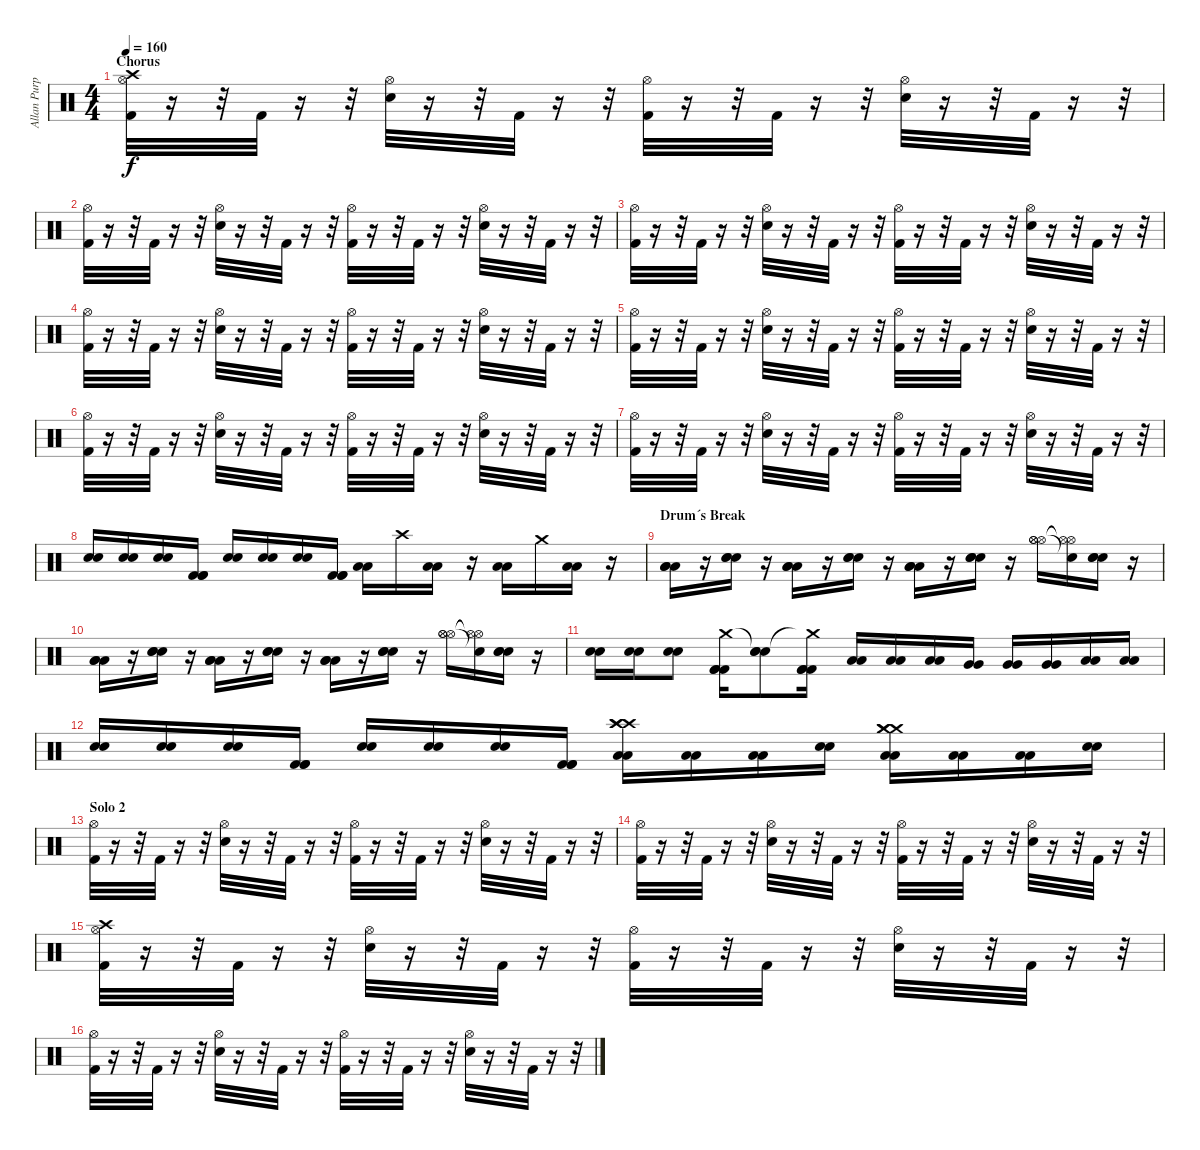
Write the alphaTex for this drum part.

\track ("Allan Purple" "Allan Purp") {instrument percussion}
\staff {score}
\articulation defaults
\ts (4 4)
\section ("" "Chorus")
\tempo 160
\clef neutral
\ks c
("Crash high (hit)" "Hi-Hat (open)" "Kick (hit) 2").32{dy f} r.16 r.32 "Kick (hit) 2".32 r.16 r.32 ("Hi-Hat (open)" "Electric Snare (hit)").32 r.16 r.32 "Kick (hit) 2".32 r.16 r.32 ("Hi-Hat (open)" "Kick (hit) 2").32 r.16 r.32 "Kick (hit) 2".32 r.16 r.32 ("Hi-Hat (open)" "Electric Snare (hit)").32 r.16 r.32 "Kick (hit) 2".32 r.16 r.32 |
("Hi-Hat (open)" "Kick (hit) 2").32 r.16 r.32 "Kick (hit) 2".32 r.16 r.32 ("Hi-Hat (open)" "Electric Snare (hit)").32 r.16 r.32 "Kick (hit) 2".32 r.16 r.32 ("Hi-Hat (open)" "Kick (hit) 2").32 r.16 r.32 "Kick (hit) 2".32 r.16 r.32 ("Hi-Hat (open)" "Electric Snare (hit)").32 r.16 r.32 "Kick (hit) 2".32 r.16 r.32 |
("Hi-Hat (open)" "Kick (hit) 2").32 r.16 r.32 "Kick (hit) 2".32 r.16 r.32 ("Hi-Hat (open)" "Electric Snare (hit)").32 r.16 r.32 "Kick (hit) 2".32 r.16 r.32 ("Hi-Hat (open)" "Kick (hit) 2").32 r.16 r.32 "Kick (hit) 2".32 r.16 r.32 ("Hi-Hat (open)" "Electric Snare (hit)").32 r.16 r.32 "Kick (hit) 2".32 r.16 r.32 |
("Hi-Hat (open)" "Kick (hit) 2").32 r.16 r.32 "Kick (hit) 2".32 r.16 r.32 ("Hi-Hat (open)" "Electric Snare (hit)").32 r.16 r.32 "Kick (hit) 2".32 r.16 r.32 ("Hi-Hat (open)" "Kick (hit) 2").32 r.16 r.32 "Kick (hit) 2".32 r.16 r.32 ("Hi-Hat (open)" "Electric Snare (hit)").32 r.16 r.32 "Kick (hit) 2".32 r.16 r.32 |
("Hi-Hat (open)" "Kick (hit) 2").32 r.16 r.32 "Kick (hit) 2".32 r.16 r.32 ("Hi-Hat (open)" "Electric Snare (hit)").32 r.16 r.32 "Kick (hit) 2".32 r.16 r.32 ("Hi-Hat (open)" "Kick (hit) 2").32 r.16 r.32 "Kick (hit) 2".32 r.16 r.32 ("Hi-Hat (open)" "Electric Snare (hit)").32 r.16 r.32 "Kick (hit) 2".32 r.16 r.32 |
("Hi-Hat (open)" "Kick (hit) 2").32 r.16 r.32 "Kick (hit) 2".32 r.16 r.32 ("Hi-Hat (open)" "Electric Snare (hit)").32 r.16 r.32 "Kick (hit) 2".32 r.16 r.32 ("Hi-Hat (open)" "Kick (hit) 2").32 r.16 r.32 "Kick (hit) 2".32 r.16 r.32 ("Hi-Hat (open)" "Electric Snare (hit)").32 r.16 r.32 "Kick (hit) 2".32 r.16 r.32 |
("Hi-Hat (open)" "Kick (hit) 2").32 r.16 r.32 "Kick (hit) 2".32 r.16 r.32 ("Hi-Hat (open)" "Electric Snare (hit)").32 r.16 r.32 "Kick (hit) 2".32 r.16 r.32 ("Hi-Hat (open)" "Kick (hit) 2").32 r.16 r.32 "Kick (hit) 2".32 r.16 r.32 ("Hi-Hat (open)" "Electric Snare (hit)").32 r.16 r.32 "Kick (hit) 2".32 r.16 r.32 |
("Electric Snare (hit)" "Electric Snare (hit)").16 ("Electric Snare (hit)" "Electric Snare (hit)").16 ("Electric Snare (hit)" "Electric Snare (hit)").16 ("Kick (hit) 2" "Kick (hit) 2" "Kick (hit) 2").16 ("Electric Snare (hit)" "Electric Snare (hit)").16 ("Electric Snare (hit)" "Electric Snare (hit)").16 ("Electric Snare (hit)" "Electric Snare (hit)").16 ("Kick (hit) 2" "Kick (hit) 2" "Kick (hit) 2").16 ("Low Tom (hit)" "Low Tom (hit)").16 "Crash high (hit)".16 ("Low Tom (hit)" "Low Tom (hit)").16 r.16 ("Low Tom (hit)" "Low Tom (hit)").16 "Crash medium (hit)".16 ("Low Tom (hit)" "Low Tom (hit)").16 r.16 |
\section ("" "Drum´s Break")
("Low Tom (hit)" "Low Tom (hit)" "Low Tom (hit)").16 r.16 ("Electric Snare (hit)" "Electric Snare (hit)" "Electric Snare (hit)").16 r.16 ("Low Tom (hit)" "Low Tom (hit)" "Low Tom (hit)").16 r.16 ("Electric Snare (hit)" "Electric Snare (hit)" "Electric Snare (hit)").16 r.16 ("Low Tom (hit)" "Low Tom (hit)" "Low Tom (hit)").16 r.16 ("Electric Snare (hit)" "Electric Snare (hit)" "Electric Snare (hit)").16 r.16 ("Hi-Hat (open)" "Hi-Hat (open)" "Hi-Hat (open)").16 ("Snare (hit)"{t} "Hi-Hat (open)"{t} "Hi-Hat (open)"{t}).16 ("Electric Snare (hit)" "Electric Snare (hit)" "Electric Snare (hit)").16 r.16 |
("Low Tom (hit)" "Low Tom (hit)" "Low Tom (hit)").16 r.16 ("Electric Snare (hit)" "Electric Snare (hit)" "Electric Snare (hit)").16 r.16 ("Low Tom (hit)" "Low Tom (hit)" "Low Tom (hit)").16 r.16 ("Electric Snare (hit)" "Electric Snare (hit)" "Electric Snare (hit)").16 r.16 ("Low Tom (hit)" "Low Tom (hit)" "Low Tom (hit)").16 r.16 ("Electric Snare (hit)" "Electric Snare (hit)" "Electric Snare (hit)").16 r.16 ("Hi-Hat (open)" "Hi-Hat (open)" "Hi-Hat (open)").16 ("Snare (hit)"{t} "Hi-Hat (open)"{t} "Hi-Hat (open)"{t}).16 ("Electric Snare (hit)" "Electric Snare (hit)" "Electric Snare (hit)").16 r.16 |
("Electric Snare (hit)" "Electric Snare (hit)").16 ("Electric Snare (hit)" "Electric Snare (hit)").16 ("Electric Snare (hit)" "Electric Snare (hit)").8 ("Crash medium (hit)" "Kick (hit) 2" "Kick (hit) 2" "Kick (hit) 2").16 ("Snare (hit)"{t} "Electric Snare (hit)" "Electric Snare (hit)").8 ("Crash medium (hit)"{t} "Kick (hit) 2" "Kick (hit) 2" "Kick (hit) 2").16 ("Low Tom (hit)" "Low Tom (hit)").16 ("Low Tom (hit)" "Low Tom (hit)").16 ("Low Tom (hit)" "Low Tom (hit)").16 ("Very Low Tom (hit)" "Very Low Tom (hit)").16 ("Very Low Tom (hit)" "Very Low Tom (hit)").16 ("Very Low Tom (hit)" "Very Low Tom (hit)").16 ("Low Floor Tom (hit)" "Low Floor Tom (hit)").16 ("Low Floor Tom (hit)" "Low Floor Tom (hit)").16 |
("Electric Snare (hit)" "Electric Snare (hit)").16 ("Electric Snare (hit)" "Electric Snare (hit)").16 ("Electric Snare (hit)" "Electric Snare (hit)").16 ("Kick (hit) 2" "Kick (hit) 2" "Kick (hit) 2").16 ("Electric Snare (hit)" "Electric Snare (hit)").16 ("Electric Snare (hit)" "Electric Snare (hit)").16 ("Electric Snare (hit)" "Electric Snare (hit)").16 ("Kick (hit) 2" "Kick (hit) 2" "Kick (hit) 2").16 ("Crash high (hit)" "Crash high (hit)" "Crash high (hit)" "Low Tom (hit)" "Low Tom (hit)").16 ("Low Tom (hit)" "Low Tom (hit)").16 ("Low Tom (hit)" "Low Tom (hit)").16 ("Electric Snare (hit)" "Electric Snare (hit)").16 ("Crash medium (hit)" "Crash medium (hit)" "Crash medium (hit)" "Low Tom (hit)" "Low Tom (hit)").16 ("Low Tom (hit)" "Low Tom (hit)").16 ("Low Tom (hit)" "Low Tom (hit)").16 ("Electric Snare (hit)" "Electric Snare (hit)").16 |
\section ("" "Solo 2")
("Hi-Hat (open)" "Kick (hit) 2").32 r.16 r.32 "Kick (hit) 2".32 r.16 r.32 ("Hi-Hat (open)" "Electric Snare (hit)").32 r.16 r.32 "Kick (hit) 2".32 r.16 r.32 ("Hi-Hat (open)" "Kick (hit) 2").32 r.16 r.32 "Kick (hit) 2".32 r.16 r.32 ("Hi-Hat (open)" "Electric Snare (hit)").32 r.16 r.32 "Kick (hit) 2".32 r.16 r.32 |
("Hi-Hat (open)" "Kick (hit) 2").32 r.16 r.32 "Kick (hit) 2".32 r.16 r.32 ("Hi-Hat (open)" "Electric Snare (hit)").32 r.16 r.32 "Kick (hit) 2".32 r.16 r.32 ("Hi-Hat (open)" "Kick (hit) 2").32 r.16 r.32 "Kick (hit) 2".32 r.16 r.32 ("Hi-Hat (open)" "Electric Snare (hit)").32 r.16 r.32 "Kick (hit) 2".32 r.16 r.32 |
("Crash high (hit)" "Hi-Hat (open)" "Kick (hit) 2").32 r.16 r.32 "Kick (hit) 2".32 r.16 r.32 ("Hi-Hat (open)" "Electric Snare (hit)").32 r.16 r.32 "Kick (hit) 2".32 r.16 r.32 ("Hi-Hat (open)" "Kick (hit) 2").32 r.16 r.32 "Kick (hit) 2".32 r.16 r.32 ("Hi-Hat (open)" "Electric Snare (hit)").32 r.16 r.32 "Kick (hit) 2".32 r.16 r.32 |
("Hi-Hat (open)" "Kick (hit) 2").32 r.16 r.32 "Kick (hit) 2".32 r.16 r.32 ("Hi-Hat (open)" "Electric Snare (hit)").32 r.16 r.32 "Kick (hit) 2".32 r.16 r.32 ("Hi-Hat (open)" "Kick (hit) 2").32 r.16 r.32 "Kick (hit) 2".32 r.16 r.32 ("Hi-Hat (open)" "Electric Snare (hit)").32 r.16 r.32 "Kick (hit) 2".32 r.16 r.32
